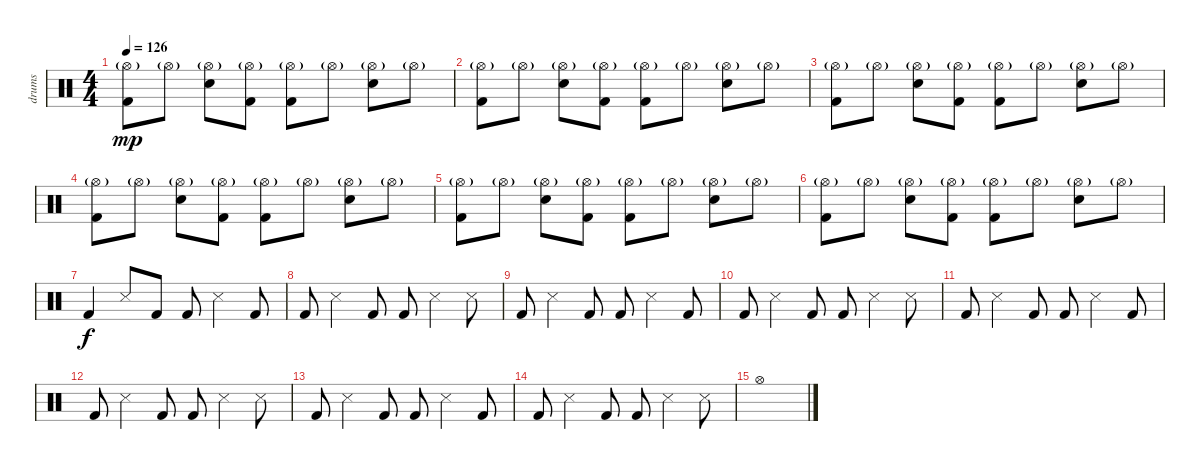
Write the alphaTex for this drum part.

\track ("drums" "drums") {instrument percussion}
\staff {score}
\articulation defaults
\ts (4 4)
\tempo 126
\clef neutral
\ks c
("Hi-Hat (open)"{g} "Kick (hit) 2").8{dy mp} "Hi-Hat (open)"{g}.8 ("Hi-Hat (open)"{g} "Snare (hit) 2").8 ("Hi-Hat (open)"{g} "Kick (hit) 2").8 ("Hi-Hat (open)"{g} "Kick (hit) 2").8 "Hi-Hat (open)"{g}.8 ("Hi-Hat (open)"{g} "Snare (hit) 2").8 "Hi-Hat (open)"{g}.8 |
("Hi-Hat (open)"{g} "Kick (hit) 2").8 "Hi-Hat (open)"{g}.8 ("Hi-Hat (open)"{g} "Snare (hit) 2").8 ("Hi-Hat (open)"{g} "Kick (hit) 2").8 ("Hi-Hat (open)"{g} "Kick (hit) 2").8 "Hi-Hat (open)"{g}.8 ("Hi-Hat (open)"{g} "Snare (hit) 2").8 "Hi-Hat (open)"{g}.8 |
("Hi-Hat (open)"{g} "Kick (hit) 2").8 "Hi-Hat (open)"{g}.8 ("Hi-Hat (open)"{g} "Snare (hit) 2").8 ("Hi-Hat (open)"{g} "Kick (hit) 2").8 ("Hi-Hat (open)"{g} "Kick (hit) 2").8 "Hi-Hat (open)"{g}.8 ("Hi-Hat (open)"{g} "Snare (hit) 2").8 "Hi-Hat (open)"{g}.8 |
("Hi-Hat (open)"{g} "Kick (hit) 2").8 "Hi-Hat (open)"{g}.8 ("Hi-Hat (open)"{g} "Snare (hit) 2").8 ("Hi-Hat (open)"{g} "Kick (hit) 2").8 ("Hi-Hat (open)"{g} "Kick (hit) 2").8 "Hi-Hat (open)"{g}.8 ("Hi-Hat (open)"{g} "Snare (hit) 2").8 "Hi-Hat (open)"{g}.8 |
("Hi-Hat (open)"{g} "Kick (hit) 2").8 "Hi-Hat (open)"{g}.8 ("Hi-Hat (open)"{g} "Snare (hit) 2").8 ("Hi-Hat (open)"{g} "Kick (hit) 2").8 ("Hi-Hat (open)"{g} "Kick (hit) 2").8 "Hi-Hat (open)"{g}.8 ("Hi-Hat (open)"{g} "Snare (hit) 2").8 "Hi-Hat (open)"{g}.8 |
("Hi-Hat (open)"{g} "Kick (hit) 2").8 "Hi-Hat (open)"{g}.8 ("Hi-Hat (open)"{g} "Snare (hit) 2").8 ("Hi-Hat (open)"{g} "Kick (hit) 2").8 ("Hi-Hat (open)"{g} "Kick (hit) 2").8 "Hi-Hat (open)"{g}.8 ("Hi-Hat (open)"{g} "Snare (hit) 2").8 "Hi-Hat (open)"{g}.8 |
"Kick (hit) 2".4{dy f} "Snare (side stick) 3".8 "Kick (hit) 2".8 "Kick (hit) 2".8 "Snare (side stick) 3".4 "Kick (hit) 2".8 |
"Kick (hit) 2".8 "Snare (side stick) 3".4 "Kick (hit) 2".8 "Kick (hit) 2".8 "Snare (side stick) 3".4 "Snare (side stick) 3".8 |
"Kick (hit) 2".8 "Snare (side stick) 3".4 "Kick (hit) 2".8 "Kick (hit) 2".8 "Snare (side stick) 3".4 "Kick (hit) 2".8 |
"Kick (hit) 2".8 "Snare (side stick) 3".4 "Kick (hit) 2".8 "Kick (hit) 2".8 "Snare (side stick) 3".4 "Snare (side stick) 3".8 |
"Kick (hit) 2".8 "Snare (side stick) 3".4 "Kick (hit) 2".8 "Kick (hit) 2".8 "Snare (side stick) 3".4 "Kick (hit) 2".8 |
"Kick (hit) 2".8 "Snare (side stick) 3".4 "Kick (hit) 2".8 "Kick (hit) 2".8 "Snare (side stick) 3".4 "Snare (side stick) 3".8 |
"Kick (hit) 2".8 "Snare (side stick) 3".4 "Kick (hit) 2".8 "Kick (hit) 2".8 "Snare (side stick) 3".4 "Kick (hit) 2".8 |
"Kick (hit) 2".8 "Snare (side stick) 3".4 "Kick (hit) 2".8 "Kick (hit) 2".8 "Snare (side stick) 3".4 "Snare (side stick) 3".8 |
"Hi-Hat (open)".1
